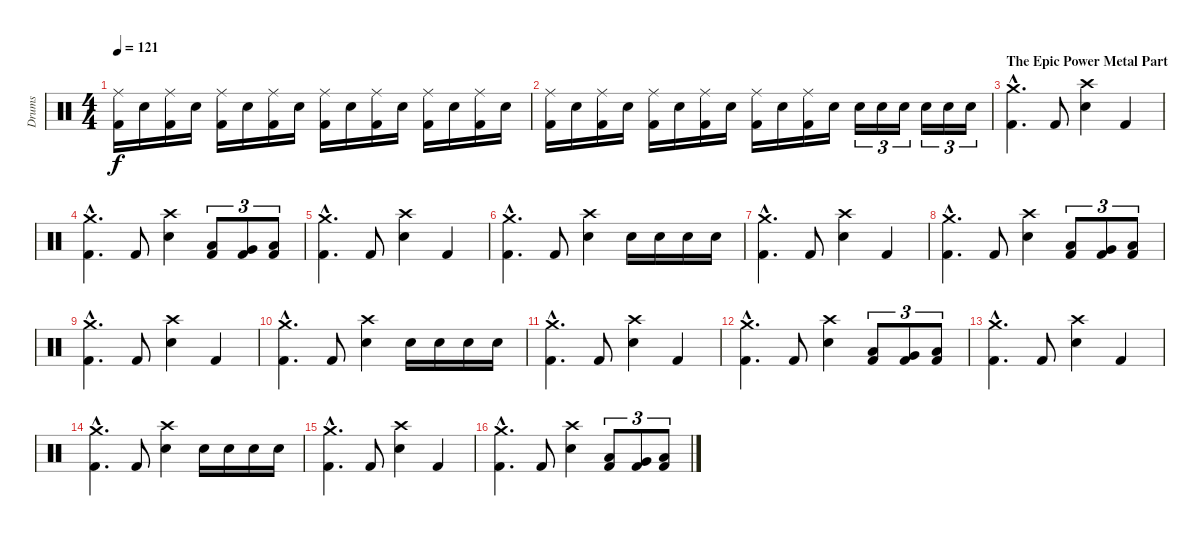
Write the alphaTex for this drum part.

\track ("Drums" "Drums") {instrument percussion}
\staff {score}
\articulation defaults
\ts (4 4)
\tempo 121
\clef neutral
\ks c
("Ride (middle)" "Kick (hit) 2").16{dy f} "Electric Snare (hit)".16 ("Ride (middle)" "Kick (hit) 2").16 "Electric Snare (hit)".16 ("Ride (middle)" "Kick (hit) 2").16 "Electric Snare (hit)".16 ("Ride (middle)" "Kick (hit) 2").16 "Electric Snare (hit)".16 ("Ride (middle)" "Kick (hit) 2").16 "Electric Snare (hit)".16 ("Ride (middle)" "Kick (hit) 2").16 "Electric Snare (hit)".16 ("Ride (middle)" "Kick (hit) 2").16 "Electric Snare (hit)".16 ("Ride (middle)" "Kick (hit) 2").16 "Electric Snare (hit)".16 |
("Ride (middle)" "Kick (hit) 2").16 "Electric Snare (hit)".16 ("Ride (middle)" "Kick (hit) 2").16 "Electric Snare (hit)".16 ("Ride (middle)" "Kick (hit) 2").16 "Electric Snare (hit)".16 ("Ride (middle)" "Kick (hit) 2").16 "Electric Snare (hit)".16 ("Ride (middle)" "Kick (hit) 2").16 "Electric Snare (hit)".16 ("Ride (middle)" "Kick (hit) 2").16 "Electric Snare (hit)".16 "Electric Snare (hit)".16{tu (3 2)} "Electric Snare (hit)".16{tu (3 2)} "Electric Snare (hit)".16{tu (3 2)} "Electric Snare (hit)".16{tu (3 2)} "Electric Snare (hit)".16{tu (3 2)} "Electric Snare (hit)".16{tu (3 2)} |
\section ("" "The Epic Power Metal Part")
("Crash medium (hit)"{hac} "Kick (hit) 2"{hac}).4{d} "Kick (hit) 2".8 ("Crash high (hit)" "Electric Snare (hit)").4 "Kick (hit) 2".4 |
("Crash medium (hit)"{hac} "Kick (hit) 2"{hac}).4{d} "Kick (hit) 2".8 ("Crash high (hit)" "Electric Snare (hit)").4 ("Low Tom (hit)" "Kick (hit) 2").8{tu (3 2)} ("Very Low Tom (hit)" "Kick (hit) 2").8{tu (3 2)} ("Low Floor Tom (hit)" "Kick (hit) 2").8{tu (3 2)} |
("Crash medium (hit)"{hac} "Kick (hit) 2"{hac}).4{d} "Kick (hit) 2".8 ("Crash high (hit)" "Electric Snare (hit)").4 "Kick (hit) 2".4 |
("Crash medium (hit)"{hac} "Kick (hit) 2"{hac}).4{d} "Kick (hit) 2".8 ("Crash high (hit)" "Electric Snare (hit)").4 "Electric Snare (hit)".16 "Electric Snare (hit)".16 "Electric Snare (hit)".16 "Electric Snare (hit)".16 |
("Crash medium (hit)"{hac} "Kick (hit) 2"{hac}).4{d} "Kick (hit) 2".8 ("Crash high (hit)" "Electric Snare (hit)").4 "Kick (hit) 2".4 |
("Crash medium (hit)"{hac} "Kick (hit) 2"{hac}).4{d} "Kick (hit) 2".8 ("Crash high (hit)" "Electric Snare (hit)").4 ("Low Tom (hit)" "Kick (hit) 2").8{tu (3 2)} ("Very Low Tom (hit)" "Kick (hit) 2").8{tu (3 2)} ("Low Floor Tom (hit)" "Kick (hit) 2").8{tu (3 2)} |
("Crash medium (hit)"{hac} "Kick (hit) 2"{hac}).4{d} "Kick (hit) 2".8 ("Crash high (hit)" "Electric Snare (hit)").4 "Kick (hit) 2".4 |
("Crash medium (hit)"{hac} "Kick (hit) 2"{hac}).4{d} "Kick (hit) 2".8 ("Crash high (hit)" "Electric Snare (hit)").4 "Electric Snare (hit)".16 "Electric Snare (hit)".16 "Electric Snare (hit)".16 "Electric Snare (hit)".16 |
("Crash medium (hit)"{hac} "Kick (hit) 2"{hac}).4{d} "Kick (hit) 2".8 ("Crash high (hit)" "Electric Snare (hit)").4 "Kick (hit) 2".4 |
("Crash medium (hit)"{hac} "Kick (hit) 2"{hac}).4{d} "Kick (hit) 2".8 ("Crash high (hit)" "Electric Snare (hit)").4 ("Low Tom (hit)" "Kick (hit) 2").8{tu (3 2)} ("Very Low Tom (hit)" "Kick (hit) 2").8{tu (3 2)} ("Low Floor Tom (hit)" "Kick (hit) 2").8{tu (3 2)} |
("Crash medium (hit)"{hac} "Kick (hit) 2"{hac}).4{d} "Kick (hit) 2".8 ("Crash high (hit)" "Electric Snare (hit)").4 "Kick (hit) 2".4 |
("Crash medium (hit)"{hac} "Kick (hit) 2"{hac}).4{d} "Kick (hit) 2".8 ("Crash high (hit)" "Electric Snare (hit)").4 "Electric Snare (hit)".16 "Electric Snare (hit)".16 "Electric Snare (hit)".16 "Electric Snare (hit)".16 |
("Crash medium (hit)"{hac} "Kick (hit) 2"{hac}).4{d} "Kick (hit) 2".8 ("Crash high (hit)" "Electric Snare (hit)").4 "Kick (hit) 2".4 |
("Crash medium (hit)"{hac} "Kick (hit) 2"{hac}).4{d} "Kick (hit) 2".8 ("Crash high (hit)" "Electric Snare (hit)").4 ("Low Tom (hit)" "Kick (hit) 2").8{tu (3 2)} ("Very Low Tom (hit)" "Kick (hit) 2").8{tu (3 2)} ("Low Floor Tom (hit)" "Kick (hit) 2").8{tu (3 2)}
